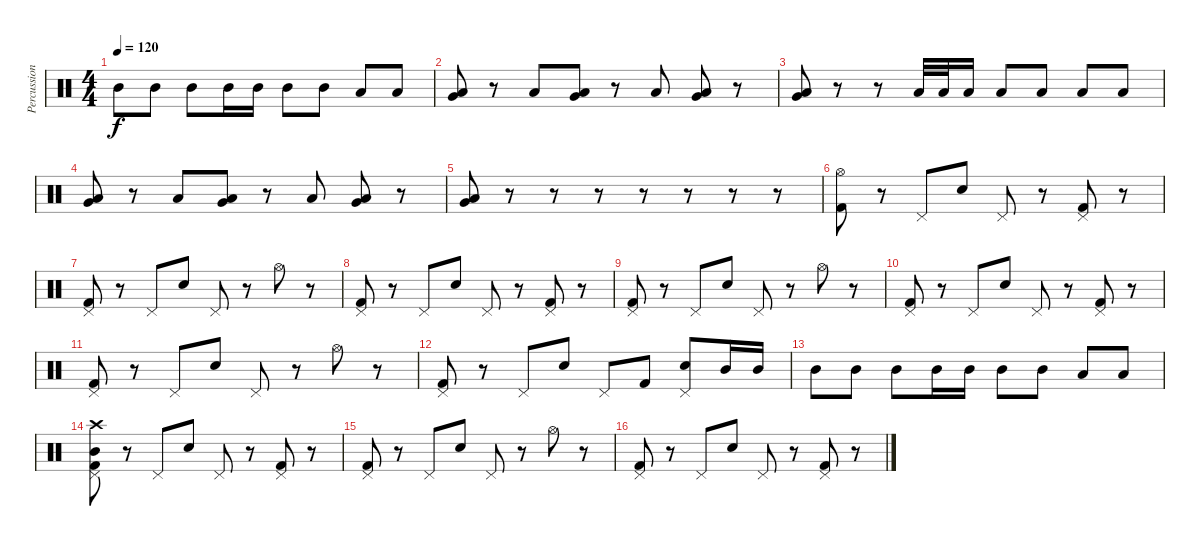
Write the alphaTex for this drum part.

\track ("Percussion" "Percussion") {instrument percussion}
\staff {score}
\articulation defaults
\ts (4 4)
\tempo 120
\clef neutral
\ks c "Mid Tom (hit)".8{dy f} "Mid Tom (hit)".8 "Mid Tom (hit)".8 "Mid Tom (hit)".16 "Mid Tom (hit)".16 "Mid Tom (hit)".8 "Mid Tom (hit)".8 "Low Tom (hit)".8 "Low Tom (hit)".8
|
("Low Floor Tom (hit)" "Very Low Tom (hit)").8 r.8 "Low Floor Tom (hit)".8 ("Low Floor Tom (hit)" "Very Low Tom (hit)").8 r.8 "Low Floor Tom (hit)".8 ("Low Floor Tom (hit)" "Very Low Tom (hit)").8 r.8 |
("Low Floor Tom (hit)" "Very Low Tom (hit)").8 r.8 r.8 "Low Floor Tom (hit)".32 "Low Floor Tom (hit)".32 "Low Floor Tom (hit)".16 "Low Floor Tom (hit)".8 "Low Floor Tom (hit)".8 "Low Floor Tom (hit)".8 "Low Floor Tom (hit)".8 |
("Low Floor Tom (hit)" "Very Low Tom (hit)").8 r.8 "Low Floor Tom (hit)".8 ("Low Floor Tom (hit)" "Very Low Tom (hit)").8 r.8 "Low Floor Tom (hit)".8 ("Low Floor Tom (hit)" "Very Low Tom (hit)").8 r.8 |
("Low Floor Tom (hit)" "Very Low Tom (hit)").8 r.8 r.8 r.8 r.8 r.8 r.8 r.8 |
("Hi-Hat (open)" "Kick (hit) 2").8 r.8 "Pedal Hi-Hat (hit)".8 "Electric Snare (hit)".8 "Pedal Hi-Hat (hit)".8 r.8 ("Pedal Hi-Hat (hit)" "Kick (hit) 2").8 r.8 |
("Pedal Hi-Hat (hit)" "Kick (hit) 2").8 r.8 "Pedal Hi-Hat (hit)".8 "Electric Snare (hit)".8 "Pedal Hi-Hat (hit)".8 r.8 "Hi-Hat (open)".8 r.8 |
("Pedal Hi-Hat (hit)" "Kick (hit) 2").8 r.8 "Pedal Hi-Hat (hit)".8 "Electric Snare (hit)".8 "Pedal Hi-Hat (hit)".8 r.8 ("Pedal Hi-Hat (hit)" "Kick (hit) 2").8 r.8 |
("Pedal Hi-Hat (hit)" "Kick (hit) 2").8 r.8 "Pedal Hi-Hat (hit)".8 "Electric Snare (hit)".8 "Pedal Hi-Hat (hit)".8 r.8 "Hi-Hat (open)".8 r.8 |
("Pedal Hi-Hat (hit)" "Kick (hit) 2").8 r.8 "Pedal Hi-Hat (hit)".8 "Electric Snare (hit)".8 "Pedal Hi-Hat (hit)".8 r.8 ("Pedal Hi-Hat (hit)" "Kick (hit) 2").8 r.8 |
("Pedal Hi-Hat (hit)" "Kick (hit) 2").8 r.8 "Pedal Hi-Hat (hit)".8 "Electric Snare (hit)".8 "Pedal Hi-Hat (hit)".8 r.8 "Hi-Hat (open)".8 r.8 |
("Pedal Hi-Hat (hit)" "Kick (hit) 2").8 r.8 "Pedal Hi-Hat (hit)".8 "Electric Snare (hit)".8 "Pedal Hi-Hat (hit)".8 "Kick (hit) 2".8 ("Pedal Hi-Hat (hit)" "Electric Snare (hit)").8 "Mid Tom (hit)".16 "Mid Tom (hit)".16 |
"Mid Tom (hit)".8 "Mid Tom (hit)".8 "Mid Tom (hit)".8 "Mid Tom (hit)".16 "Mid Tom (hit)".16 "Mid Tom (hit)".8 "Mid Tom (hit)".8 "Low Tom (hit)".8 "Low Tom (hit)".8 |
("Crash high (hit)" "Pedal Hi-Hat (hit)" "Mid Tom (hit)" "Kick (hit) 2").8 r.8 "Pedal Hi-Hat (hit)".8 "Electric Snare (hit)".8 "Pedal Hi-Hat (hit)".8 r.8 ("Pedal Hi-Hat (hit)" "Kick (hit) 2").8 r.8 |
("Pedal Hi-Hat (hit)" "Kick (hit) 2").8 r.8 "Pedal Hi-Hat (hit)".8 "Electric Snare (hit)".8 "Pedal Hi-Hat (hit)".8 r.8 "Hi-Hat (open)".8 r.8 |
("Pedal Hi-Hat (hit)" "Kick (hit) 2").8 r.8 "Pedal Hi-Hat (hit)".8 "Electric Snare (hit)".8 "Pedal Hi-Hat (hit)".8 r.8 ("Pedal Hi-Hat (hit)" "Kick (hit) 2").8 r.8
